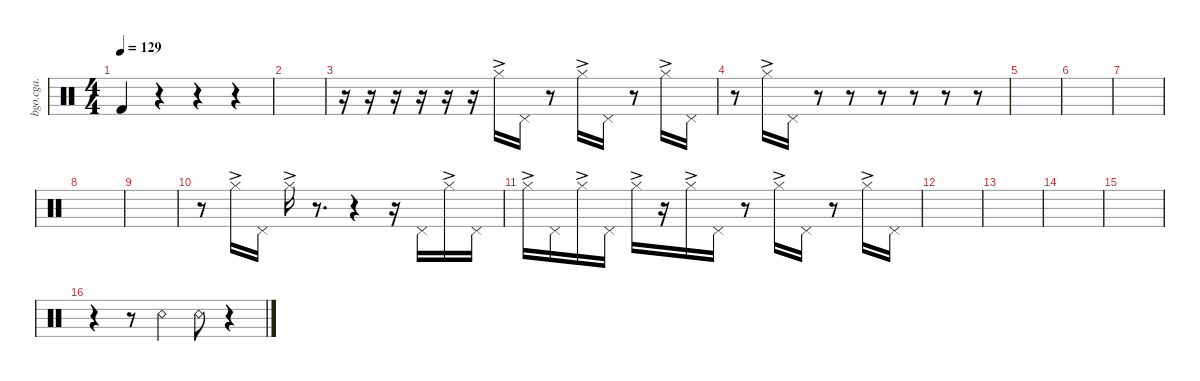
\defaultSystemsLayout 4
\hideDynamics
\bracketExtendMode nobrackets
\otherSystemsTrackNameOrientation horizontal
\track ("Heiko's percussion" "bgo.cga.") {instrument percussion}
\staff {score}
\articulation defaults
\ts (4 4)
\tempo 129
\clef neutral
\ks c "Kick (hit) 2".4{dy mf}
r.4 r.4 r.4 |
|
r.16 r.16 r.16 r.16 r.16 r.16 "Hi-Hat (closed)"{ac}.16{dy mp} "Pedal Hi-Hat (hit)".16 r.8 "Hi-Hat (closed)"{ac}.16 "Pedal Hi-Hat (hit)".16 r.8 "Hi-Hat (closed)"{ac}.16 "Pedal Hi-Hat (hit)".16 |
r.8 "Hi-Hat (closed)"{ac}.16 "Pedal Hi-Hat (hit)".16 r.8 r.8 r.8 r.8 r.8 r.8 |
|
|
|
|
|
r.8 "Hi-Hat (closed)"{ac}.16 "Pedal Hi-Hat (hit)".16 "Hi-Hat (closed)"{ac}.16 r.8{d} r.4 r.16 "Pedal Hi-Hat (hit)".16 "Hi-Hat (closed)"{ac}.16 "Pedal Hi-Hat (hit)".16 |
"Hi-Hat (closed)"{ac}.16 "Pedal Hi-Hat (hit)".16 "Hi-Hat (closed)"{ac}.16 "Pedal Hi-Hat (hit)".16 "Hi-Hat (closed)"{ac}.16 r.16 "Hi-Hat (closed)"{ac}.16 "Pedal Hi-Hat (hit)".16 r.8 "Hi-Hat (closed)"{ac}.16 "Pedal Hi-Hat (hit)".16 r.8 "Hi-Hat (closed)"{ac}.16 "Pedal Hi-Hat (hit)".16 |
|
|
|
|
r.4 r.8 "Snare (rim shot)".4{dy mf} "Snare (rim shot)".8 r.4
